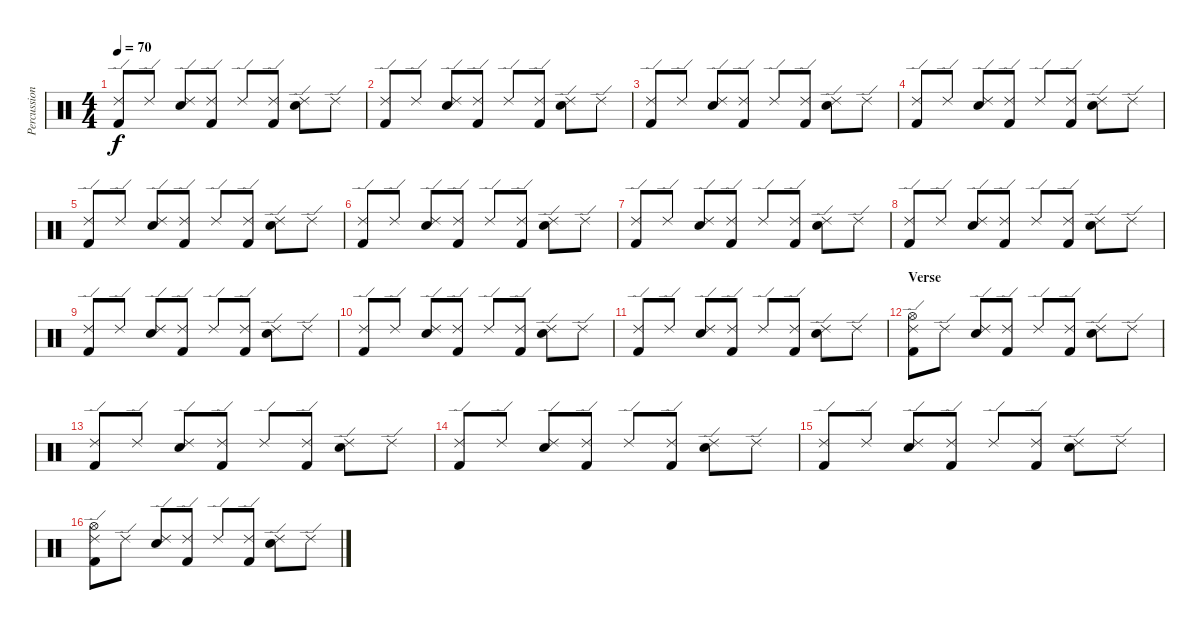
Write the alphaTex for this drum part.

\track ("Percussion" "Percussion") {instrument percussion}
\staff {score}
\articulation defaults
\ts (4 4)
\tempo 70
\clef neutral
\ks c
("Ride (edge) 2" "Kick (hit) 2").8{dy f} "Ride (edge) 2".8 ("Ride (edge) 2" "Electric Snare (hit)").8 ("Ride (edge) 2" "Kick (hit) 2").8 "Ride (edge) 2".8 ("Ride (edge) 2" "Kick (hit) 2").8 ("Ride (edge) 2" "Electric Snare (hit)").8 "Ride (edge) 2".8 |
("Ride (edge) 2" "Kick (hit) 2").8 "Ride (edge) 2".8 ("Ride (edge) 2" "Electric Snare (hit)").8 ("Ride (edge) 2" "Kick (hit) 2").8 "Ride (edge) 2".8 ("Ride (edge) 2" "Kick (hit) 2").8 ("Ride (edge) 2" "Electric Snare (hit)").8 "Ride (edge) 2".8 |
("Ride (edge) 2" "Kick (hit) 2").8 "Ride (edge) 2".8 ("Ride (edge) 2" "Electric Snare (hit)").8 ("Ride (edge) 2" "Kick (hit) 2").8 "Ride (edge) 2".8 ("Ride (edge) 2" "Kick (hit) 2").8 ("Ride (edge) 2" "Electric Snare (hit)").8 "Ride (edge) 2".8 |
("Ride (edge) 2" "Kick (hit) 2").8 "Ride (edge) 2".8 ("Ride (edge) 2" "Electric Snare (hit)").8 ("Ride (edge) 2" "Kick (hit) 2").8 "Ride (edge) 2".8 ("Ride (edge) 2" "Kick (hit) 2").8 ("Ride (edge) 2" "Electric Snare (hit)").8 "Ride (edge) 2".8 |
("Ride (edge) 2" "Kick (hit) 2").8 "Ride (edge) 2".8 ("Ride (edge) 2" "Electric Snare (hit)").8 ("Ride (edge) 2" "Kick (hit) 2").8 "Ride (edge) 2".8 ("Ride (edge) 2" "Kick (hit) 2").8 ("Ride (edge) 2" "Electric Snare (hit)").8 "Ride (edge) 2".8 |
("Ride (edge) 2" "Kick (hit) 2").8 "Ride (edge) 2".8 ("Ride (edge) 2" "Electric Snare (hit)").8 ("Ride (edge) 2" "Kick (hit) 2").8 "Ride (edge) 2".8 ("Ride (edge) 2" "Kick (hit) 2").8 ("Ride (edge) 2" "Electric Snare (hit)").8 "Ride (edge) 2".8 |
("Ride (edge) 2" "Kick (hit) 2").8 "Ride (edge) 2".8 ("Ride (edge) 2" "Electric Snare (hit)").8 ("Ride (edge) 2" "Kick (hit) 2").8 "Ride (edge) 2".8 ("Ride (edge) 2" "Kick (hit) 2").8 ("Ride (edge) 2" "Electric Snare (hit)").8 "Ride (edge) 2".8 |
("Ride (edge) 2" "Kick (hit) 2").8 "Ride (edge) 2".8 ("Ride (edge) 2" "Electric Snare (hit)").8 ("Ride (edge) 2" "Kick (hit) 2").8 "Ride (edge) 2".8 ("Ride (edge) 2" "Kick (hit) 2").8 ("Ride (edge) 2" "Electric Snare (hit)").8 "Ride (edge) 2".8 |
("Ride (edge) 2" "Kick (hit) 2").8 "Ride (edge) 2".8 ("Ride (edge) 2" "Electric Snare (hit)").8 ("Ride (edge) 2" "Kick (hit) 2").8 "Ride (edge) 2".8 ("Ride (edge) 2" "Kick (hit) 2").8 ("Ride (edge) 2" "Electric Snare (hit)").8 "Ride (edge) 2".8 |
("Ride (edge) 2" "Kick (hit) 2").8 "Ride (edge) 2".8 ("Ride (edge) 2" "Electric Snare (hit)").8 ("Ride (edge) 2" "Kick (hit) 2").8 "Ride (edge) 2".8 ("Ride (edge) 2" "Kick (hit) 2").8 ("Ride (edge) 2" "Electric Snare (hit)").8 "Ride (edge) 2".8 |
("Ride (edge) 2" "Kick (hit) 2").8 "Ride (edge) 2".8 ("Ride (edge) 2" "Electric Snare (hit)").8 ("Ride (edge) 2" "Kick (hit) 2").8 "Ride (edge) 2".8 ("Ride (edge) 2" "Kick (hit) 2").8 ("Ride (edge) 2" "Electric Snare (hit)").8 "Ride (edge) 2".8 |
\section ("" "Verse")
("Ride (edge) 2" "Hi-Hat (open)" "Kick (hit) 2").8 "Ride (edge) 2".8 ("Ride (edge) 2" "Electric Snare (hit)").8 ("Ride (edge) 2" "Kick (hit) 2").8 "Ride (edge) 2".8 ("Ride (edge) 2" "Kick (hit) 2").8 ("Ride (edge) 2" "Electric Snare (hit)").8 "Ride (edge) 2".8 |
("Ride (edge) 2" "Kick (hit) 2").8 "Ride (edge) 2".8 ("Ride (edge) 2" "Electric Snare (hit)").8 ("Ride (edge) 2" "Kick (hit) 2").8 "Ride (edge) 2".8 ("Ride (edge) 2" "Kick (hit) 2").8 ("Ride (edge) 2" "Electric Snare (hit)").8 "Ride (edge) 2".8 |
("Ride (edge) 2" "Kick (hit) 2").8 "Ride (edge) 2".8 ("Ride (edge) 2" "Electric Snare (hit)").8 ("Ride (edge) 2" "Kick (hit) 2").8 "Ride (edge) 2".8 ("Ride (edge) 2" "Kick (hit) 2").8 ("Ride (edge) 2" "Electric Snare (hit)").8 "Ride (edge) 2".8 |
("Ride (edge) 2" "Kick (hit) 2").8 "Ride (edge) 2".8 ("Ride (edge) 2" "Electric Snare (hit)").8 ("Ride (edge) 2" "Kick (hit) 2").8 "Ride (edge) 2".8 ("Ride (edge) 2" "Kick (hit) 2").8 ("Ride (edge) 2" "Electric Snare (hit)").8 "Ride (edge) 2".8 |
("Ride (edge) 2" "Hi-Hat (open)" "Kick (hit) 2").8 "Ride (edge) 2".8 ("Ride (edge) 2" "Electric Snare (hit)").8 ("Ride (edge) 2" "Kick (hit) 2").8 "Ride (edge) 2".8 ("Ride (edge) 2" "Kick (hit) 2").8 ("Ride (edge) 2" "Electric Snare (hit)").8 "Ride (edge) 2".8
